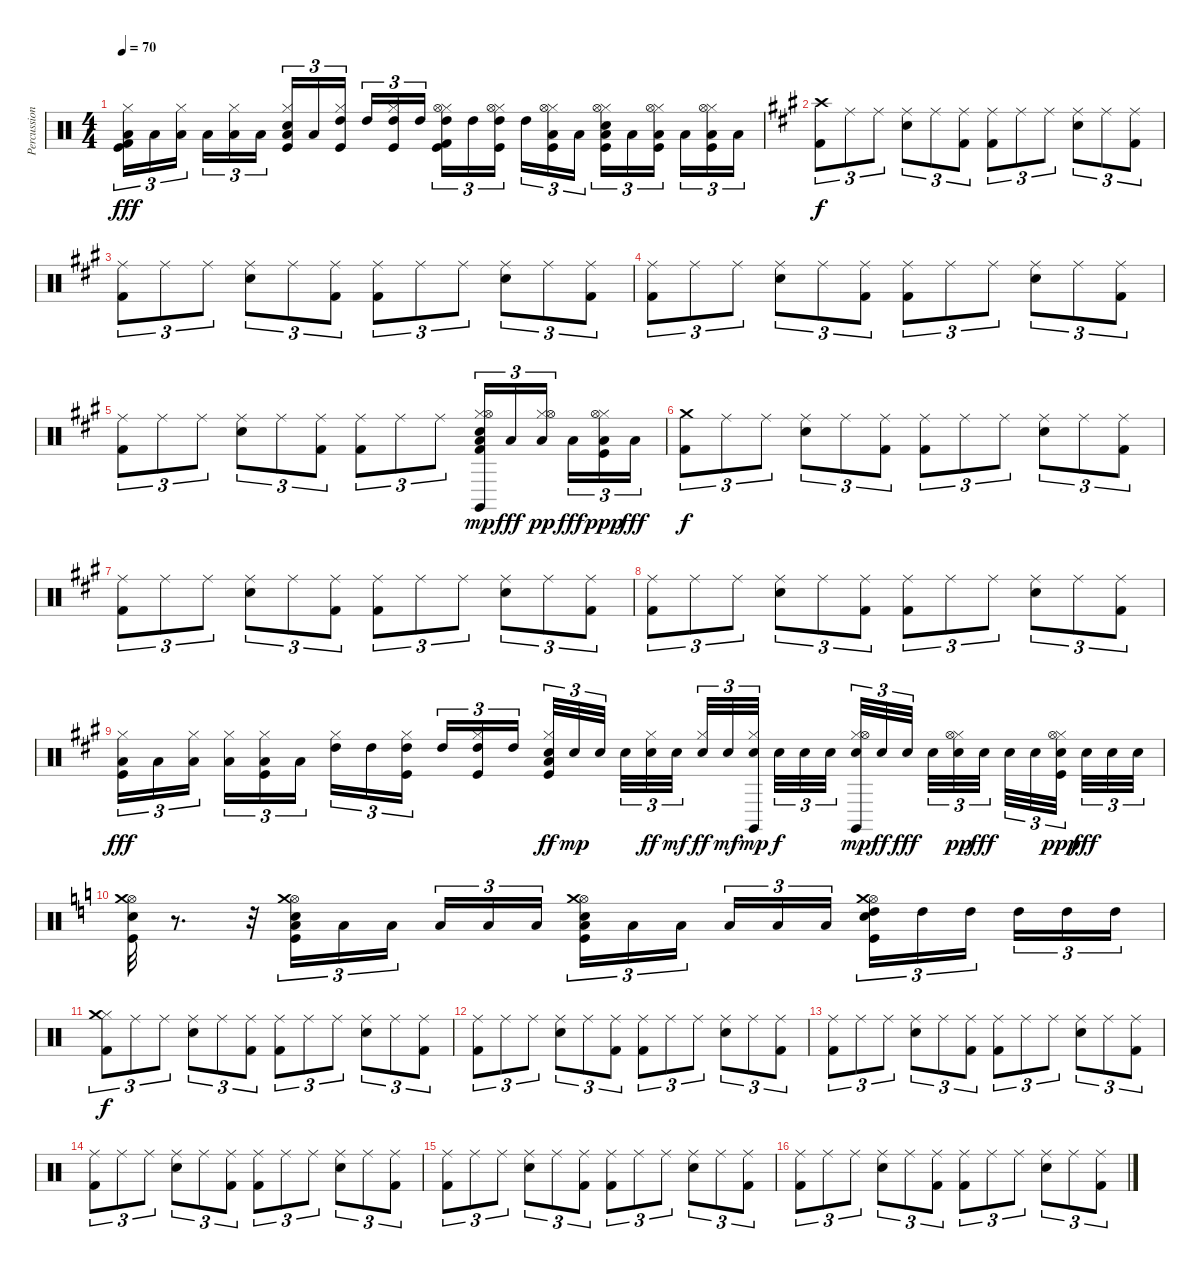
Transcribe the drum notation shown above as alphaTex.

\track ("Percussion" "Percussion") {instrument percussion}
\staff {score}
\articulation defaults
\ts (4 4)
\tempo 70
\clef neutral
\ks c
("Kick (hit)" "Low Floor Tom (hit)" "Hi-Hat (closed)" "Kick (hit) 2").16{tu (3 2) dy fff} "Low Floor Tom (hit)".16{tu (3 2)} ("Low Floor Tom (hit)" "Hi-Hat (closed)").16{tu (3 2) beam splitsecondary} "Low Floor Tom (hit)".16{tu (3 2)} ("Hi-Hat (closed)" "Low Tom (hit)").16{tu (3 2)} "Low Tom (hit)".16{tu (3 2)} ("Kick (hit)" "Electric Snare (hit)" "Hi-Hat (closed)" "Low Tom (hit)").16{tu (3 2)} "Low Tom (hit)".16{tu (3 2)} ("Kick (hit)" "Hi-Hat (closed)" "High Tom (hit)").16{tu (3 2) beam splitsecondary} "High Tom (hit)".16{tu (3 2)} ("Kick (hit)" "Hi-Hat (closed)" "High Tom (hit)").16{tu (3 2)} "High Tom (hit)".16{tu (3 2)} ("Kick (hit)" "Hi-Hat (closed)" "Hi-Hat (open)" "High Tom (hit)" "Kick (hit) 2").16{tu (3 2)} "High Tom (hit)".16{tu (3 2)} ("Kick (hit)" "Hi-Hat (closed)" "Hi-Hat (open)" "High Tom (hit)").16{tu (3 2) beam splitsecondary} "High Tom (hit)".16{tu (3 2)} ("Kick (hit)" "Hi-Hat (closed)" "Low Tom (hit)" "Hi-Hat (open)").16{tu (3 2)} "Low Tom (hit)".16{tu (3 2)} ("Kick (hit)" "Electric Snare (hit)" "Hi-Hat (closed)" "Low Tom (hit)" "Hi-Hat (open)").16{tu (3 2)} "Low Tom (hit)".16{tu (3 2)} ("Kick (hit)" "Low Floor Tom (hit)" "Hi-Hat (closed)" "Hi-Hat (open)").16{tu (3 2) beam splitsecondary} "Low Floor Tom (hit)".16{tu (3 2)} ("Kick (hit)" "Low Floor Tom (hit)" "Hi-Hat (closed)" "Hi-Hat (open)").16{tu (3 2)} "Low Floor Tom (hit)".16{tu (3 2)} |
\ks a
("Crash high (hit)" "Kick (hit) 2").8{tu (3 2) dy f} "Ride (middle)".8{tu (3 2)} "Ride (middle)".8{tu (3 2)} ("Snare (hit) 2" "Ride (middle)").8{tu (3 2)} "Ride (middle)".8{tu (3 2)} ("Ride (middle)" "Kick (hit) 2").8{tu (3 2)} ("Ride (middle)" "Kick (hit) 2").8{tu (3 2)} "Ride (middle)".8{tu (3 2)} "Ride (middle)".8{tu (3 2)} ("Snare (hit) 2" "Ride (middle)").8{tu (3 2)} "Ride (middle)".8{tu (3 2)} ("Ride (middle)" "Kick (hit) 2").8{tu (3 2)} |
("Ride (middle)" "Kick (hit) 2").8{tu (3 2)} "Ride (middle)".8{tu (3 2)} "Ride (middle)".8{tu (3 2)} ("Snare (hit) 2" "Ride (middle)").8{tu (3 2)} "Ride (middle)".8{tu (3 2)} ("Ride (middle)" "Kick (hit) 2").8{tu (3 2)} ("Ride (middle)" "Kick (hit) 2").8{tu (3 2)} "Ride (middle)".8{tu (3 2)} "Ride (middle)".8{tu (3 2)} ("Snare (hit) 2" "Ride (middle)").8{tu (3 2)} "Ride (middle)".8{tu (3 2)} ("Ride (middle)" "Kick (hit) 2").8{tu (3 2)} |
("Ride (middle)" "Kick (hit) 2").8{tu (3 2)} "Ride (middle)".8{tu (3 2)} "Ride (middle)".8{tu (3 2)} ("Snare (hit) 2" "Ride (middle)").8{tu (3 2)} "Ride (middle)".8{tu (3 2)} ("Ride (middle)" "Kick (hit) 2").8{tu (3 2)} ("Ride (middle)" "Kick (hit) 2").8{tu (3 2)} "Ride (middle)".8{tu (3 2)} "Ride (middle)".8{tu (3 2)} ("Snare (hit) 2" "Ride (middle)").8{tu (3 2)} "Ride (middle)".8{tu (3 2)} ("Ride (middle)" "Kick (hit) 2").8{tu (3 2)} |
("Ride (middle)" "Kick (hit) 2").8{tu (3 2)} "Ride (middle)".8{tu (3 2)} "Ride (middle)".8{tu (3 2)} ("Snare (hit) 2" "Ride (middle)").8{tu (3 2)} "Ride (middle)".8{tu (3 2)} ("Ride (middle)" "Kick (hit) 2").8{tu (3 2)} ("Ride (middle)" "Kick (hit) 2").8{tu (3 2)} "Ride (middle)".8{tu (3 2)} "Ride (middle)".8{tu (3 2)} ("Electric Snare (hit)" "Hi-Hat (closed)" "Low Tom (hit)" "Hi-Hat (open)" "Claves (hit)" "Kick (hit) 2").16{tu (3 2) dy mp} "Low Tom (hit)".16{tu (3 2) dy fff} ("Hi-Hat (closed)" "Low Tom (hit)" "Hi-Hat (open)").16{tu (3 2) dy pp beam splitsecondary} "Low Tom (hit)".16{tu (3 2) dy fff} ("Kick (hit)" "Hi-Hat (closed)" "Low Tom (hit)" "Hi-Hat (open)").16{tu (3 2) dy ppp} "Low Tom (hit)".16{tu (3 2) dy fff} |
("Kick (hit) 2" "Crash medium (hit)").8{tu (3 2) dy f} "Ride (middle)".8{tu (3 2)} "Ride (middle)".8{tu (3 2)} ("Snare (hit) 2" "Ride (middle)").8{tu (3 2)} "Ride (middle)".8{tu (3 2)} ("Ride (middle)" "Kick (hit) 2").8{tu (3 2)} ("Ride (middle)" "Kick (hit) 2").8{tu (3 2)} "Ride (middle)".8{tu (3 2)} "Ride (middle)".8{tu (3 2)} ("Snare (hit) 2" "Ride (middle)").8{tu (3 2)} "Ride (middle)".8{tu (3 2)} ("Ride (middle)" "Kick (hit) 2").8{tu (3 2)} |
("Ride (middle)" "Kick (hit) 2").8{tu (3 2)} "Ride (middle)".8{tu (3 2)} "Ride (middle)".8{tu (3 2)} ("Snare (hit) 2" "Ride (middle)").8{tu (3 2)} "Ride (middle)".8{tu (3 2)} ("Ride (middle)" "Kick (hit) 2").8{tu (3 2)} ("Ride (middle)" "Kick (hit) 2").8{tu (3 2)} "Ride (middle)".8{tu (3 2)} "Ride (middle)".8{tu (3 2)} ("Snare (hit) 2" "Ride (middle)").8{tu (3 2)} "Ride (middle)".8{tu (3 2)} ("Ride (middle)" "Kick (hit) 2").8{tu (3 2)} |
("Ride (middle)" "Kick (hit) 2").8{tu (3 2)} "Ride (middle)".8{tu (3 2)} "Ride (middle)".8{tu (3 2)} ("Snare (hit) 2" "Ride (middle)").8{tu (3 2)} "Ride (middle)".8{tu (3 2)} ("Ride (middle)" "Kick (hit) 2").8{tu (3 2)} ("Ride (middle)" "Kick (hit) 2").8{tu (3 2)} "Ride (middle)".8{tu (3 2)} "Ride (middle)".8{tu (3 2)} ("Snare (hit) 2" "Ride (middle)").8{tu (3 2)} "Ride (middle)".8{tu (3 2)} ("Ride (middle)" "Kick (hit) 2").8{tu (3 2)} |
("Kick (hit)" "Hi-Hat (closed)" "Low Tom (hit)").16{tu (3 2) dy fff} "Low Tom (hit)".16{tu (3 2)} ("Hi-Hat (closed)" "Low Tom (hit)").16{tu (3 2) beam splitsecondary} ("Hi-Hat (closed)" "Low Tom (hit)").16{tu (3 2)} ("Kick (hit)" "Hi-Hat (closed)" "Low Tom (hit)").16{tu (3 2)} "Low Tom (hit)".16{tu (3 2)} ("Hi-Hat (closed)" "High Tom (hit)").16{tu (3 2)} "High Tom (hit)".16{tu (3 2)} ("Kick (hit)" "Hi-Hat (closed)" "High Tom (hit)").16{tu (3 2) beam splitsecondary} "High Tom (hit)".16{tu (3 2)} ("Kick (hit)" "Hi-Hat (closed)" "High Tom (hit)").16{tu (3 2)} "High Tom (hit)".16{tu (3 2)} ("Kick (hit)" "Electric Snare (hit)" "Low Floor Tom (hit)" "Hi-Hat (closed)").32{tu (3 2) dy ff} "Electric Snare (hit)".32{tu (3 2) dy mp} "Electric Snare (hit)".32{tu (3 2) beam splitsecondary} "Electric Snare (hit)".32{tu (3 2)} ("Electric Snare (hit)" "Hi-Hat (closed)").32{tu (3 2) dy ff} "Electric Snare (hit)".32{tu (3 2) dy mf beam splitsecondary} ("Electric Snare (hit)" "Hi-Hat (closed)").32{tu (3 2) dy ff} "Electric Snare (hit)".32{tu (3 2) dy mf} ("Electric Snare (hit)" "Hi-Hat (closed)" "Claves (hit)").32{tu (3 2) dy mp beam splitsecondary} "Electric Snare (hit)".32{tu (3 2) dy f} "Electric Snare (hit)".32{tu (3 2)} "Electric Snare (hit)".32{tu (3 2)} ("Electric Snare (hit)" "Hi-Hat (closed)" "Hi-Hat (open)" "Claves (hit)").32{tu (3 2) dy mp} "Electric Snare (hit)".32{tu (3 2) dy ff} "Electric Snare (hit)".32{tu (3 2) dy fff beam splitsecondary} "Electric Snare (hit)".32{tu (3 2)} ("Electric Snare (hit)" "Hi-Hat (closed)" "Hi-Hat (open)").32{tu (3 2) dy pp} "Electric Snare (hit)".32{tu (3 2) dy fff beam splitsecondary} "Electric Snare (hit)".32{tu (3 2)} "Electric Snare (hit)".32{tu (3 2)} ("Kick (hit)" "Electric Snare (hit)" "Hi-Hat (closed)" "Hi-Hat (open)").32{tu (3 2) dy ppp beam splitsecondary} "Electric Snare (hit)".32{tu (3 2) dy fff} "Electric Snare (hit)".32{tu (3 2)} "Electric Snare (hit)".32{tu (3 2)} |
\ks aminor
("Kick (hit)" "Electric Snare (hit)" "Hi-Hat (open)" "Crash medium (hit)").32 r.8{d} r.32 ("Kick (hit)" "Electric Snare (hit)" "Low Floor Tom (hit)" "Hi-Hat (open)" "Crash medium (hit)").16{tu (3 2)} "Low Floor Tom (hit)".16{tu (3 2)} "Low Floor Tom (hit)".16{tu (3 2) beam splitsecondary} "Low Floor Tom (hit)".16{tu (3 2)} "Low Floor Tom (hit)".16{tu (3 2)} "Low Floor Tom (hit)".16{tu (3 2)} ("Kick (hit)" "Electric Snare (hit)" "Low Tom (hit)" "Hi-Hat (open)" "Crash medium (hit)").16{tu (3 2)} "Low Tom (hit)".16{tu (3 2)} "Low Tom (hit)".16{tu (3 2) beam splitsecondary} "Low Tom (hit)".16{tu (3 2)} "Low Tom (hit)".16{tu (3 2)} "Low Tom (hit)".16{tu (3 2)} ("Kick (hit)" "Electric Snare (hit)" "Hi-Hat (open)" "High Tom (hit)" "Crash medium (hit)").16{tu (3 2)} "High Tom (hit)".16{tu (3 2)} "High Tom (hit)".16{tu (3 2) beam splitsecondary} "High Tom (hit)".16{tu (3 2)} "High Tom (hit)".16{tu (3 2)} "High Tom (hit)".16{tu (3 2)} |
("Hi-Hat (closed)" "Crash medium (hit)" "Kick (hit) 2").8{tu (3 2) dy f} "Ride (middle)".8{tu (3 2)} "Ride (middle)".8{tu (3 2)} ("Snare (hit) 2" "Ride (middle)").8{tu (3 2)} "Ride (middle)".8{tu (3 2)} ("Ride (middle)" "Kick (hit) 2").8{tu (3 2)} ("Ride (middle)" "Kick (hit) 2").8{tu (3 2)} "Ride (middle)".8{tu (3 2)} "Ride (middle)".8{tu (3 2)} ("Snare (hit) 2" "Ride (middle)").8{tu (3 2)} "Ride (middle)".8{tu (3 2)} ("Ride (middle)" "Kick (hit) 2").8{tu (3 2)} |
("Ride (middle)" "Kick (hit) 2").8{tu (3 2)} "Ride (middle)".8{tu (3 2)} "Ride (middle)".8{tu (3 2)} ("Snare (hit) 2" "Ride (middle)").8{tu (3 2)} "Ride (middle)".8{tu (3 2)} ("Ride (middle)" "Kick (hit) 2").8{tu (3 2)} ("Ride (middle)" "Kick (hit) 2").8{tu (3 2)} "Ride (middle)".8{tu (3 2)} "Ride (middle)".8{tu (3 2)} ("Snare (hit) 2" "Ride (middle)").8{tu (3 2)} "Ride (middle)".8{tu (3 2)} ("Ride (middle)" "Kick (hit) 2").8{tu (3 2)} |
("Ride (middle)" "Kick (hit) 2").8{tu (3 2)} "Ride (middle)".8{tu (3 2)} "Ride (middle)".8{tu (3 2)} ("Snare (hit) 2" "Ride (middle)").8{tu (3 2)} "Ride (middle)".8{tu (3 2)} ("Ride (middle)" "Kick (hit) 2").8{tu (3 2)} ("Ride (middle)" "Kick (hit) 2").8{tu (3 2)} "Ride (middle)".8{tu (3 2)} "Ride (middle)".8{tu (3 2)} ("Snare (hit) 2" "Ride (middle)").8{tu (3 2)} "Ride (middle)".8{tu (3 2)} ("Ride (middle)" "Kick (hit) 2").8{tu (3 2)} |
("Ride (middle)" "Kick (hit) 2").8{tu (3 2)} "Ride (middle)".8{tu (3 2)} "Ride (middle)".8{tu (3 2)} ("Snare (hit) 2" "Ride (middle)").8{tu (3 2)} "Ride (middle)".8{tu (3 2)} ("Ride (middle)" "Kick (hit) 2").8{tu (3 2)} ("Ride (middle)" "Kick (hit) 2").8{tu (3 2)} "Ride (middle)".8{tu (3 2)} "Ride (middle)".8{tu (3 2)} ("Snare (hit) 2" "Ride (middle)").8{tu (3 2)} "Ride (middle)".8{tu (3 2)} ("Ride (middle)" "Kick (hit) 2").8{tu (3 2)} |
("Ride (middle)" "Kick (hit) 2").8{tu (3 2)} "Ride (middle)".8{tu (3 2)} "Ride (middle)".8{tu (3 2)} ("Snare (hit) 2" "Ride (middle)").8{tu (3 2)} "Ride (middle)".8{tu (3 2)} ("Ride (middle)" "Kick (hit) 2").8{tu (3 2)} ("Ride (middle)" "Kick (hit) 2").8{tu (3 2)} "Ride (middle)".8{tu (3 2)} "Ride (middle)".8{tu (3 2)} ("Snare (hit) 2" "Ride (middle)").8{tu (3 2)} "Ride (middle)".8{tu (3 2)} ("Ride (middle)" "Kick (hit) 2").8{tu (3 2)} |
("Ride (middle)" "Kick (hit) 2").8{tu (3 2)} "Ride (middle)".8{tu (3 2)} "Ride (middle)".8{tu (3 2)} ("Snare (hit) 2" "Ride (middle)").8{tu (3 2)} "Ride (middle)".8{tu (3 2)} ("Ride (middle)" "Kick (hit) 2").8{tu (3 2)} ("Ride (middle)" "Kick (hit) 2").8{tu (3 2)} "Ride (middle)".8{tu (3 2)} "Ride (middle)".8{tu (3 2)} ("Snare (hit) 2" "Ride (middle)").8{tu (3 2)} "Ride (middle)".8{tu (3 2)} ("Ride (middle)" "Kick (hit) 2").8{tu (3 2)}
